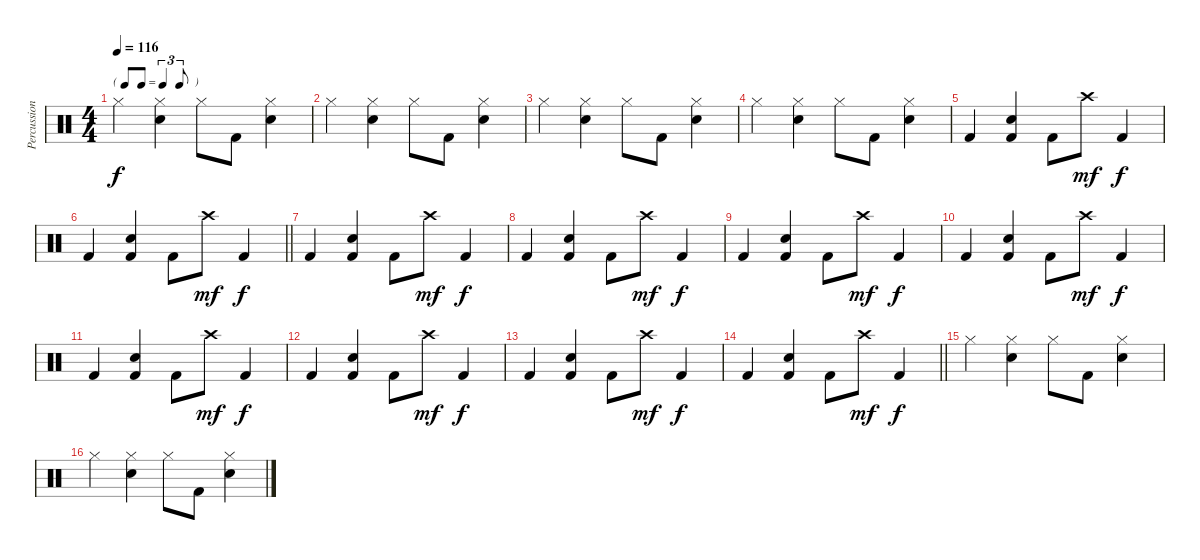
\track ("Percussion" "Percussion") {instrument percussion}
\staff {score}
\articulation defaults
\ts (4 4)
\tf triplet8th
\tempo 116
\clef neutral
\ks c "Hi-Hat (closed)".4{dy f}
("Hi-Hat (closed)" "Snare (hit) 2").4 "Hi-Hat (closed)".8 "Kick (hit) 2".8 ("Hi-Hat (closed)" "Snare (hit) 2").4 |
"Hi-Hat (closed)".4 ("Hi-Hat (closed)" "Snare (hit) 2").4 "Hi-Hat (closed)".8 "Kick (hit) 2".8 ("Hi-Hat (closed)" "Snare (hit) 2").4 |
"Hi-Hat (closed)".4 ("Hi-Hat (closed)" "Snare (hit) 2").4 "Hi-Hat (closed)".8 "Kick (hit) 2".8 ("Hi-Hat (closed)" "Snare (hit) 2").4 |
"Hi-Hat (closed)".4 ("Hi-Hat (closed)" "Snare (hit) 2").4 "Hi-Hat (closed)".8 "Kick (hit) 2".8 ("Hi-Hat (closed)" "Snare (hit) 2").4 |
"Kick (hit) 2".4 ("Snare (hit) 2" "Kick (hit) 2").4 "Kick (hit) 2".8 "Crash high (hit)".8{dy mf} "Kick (hit) 2".4{dy f} |
\barLineRight lightlight "Kick (hit) 2".4
("Snare (hit) 2" "Kick (hit) 2").4 "Kick (hit) 2".8 "Crash high (hit)".8{dy mf} "Kick (hit) 2".4{dy f} |
"Kick (hit) 2".4 ("Snare (hit) 2" "Kick (hit) 2").4 "Kick (hit) 2".8 "Crash high (hit)".8{dy mf} "Kick (hit) 2".4{dy f} |
"Kick (hit) 2".4 ("Snare (hit) 2" "Kick (hit) 2").4 "Kick (hit) 2".8 "Crash high (hit)".8{dy mf} "Kick (hit) 2".4{dy f} |
"Kick (hit) 2".4 ("Snare (hit) 2" "Kick (hit) 2").4 "Kick (hit) 2".8 "Crash high (hit)".8{dy mf} "Kick (hit) 2".4{dy f} |
"Kick (hit) 2".4 ("Snare (hit) 2" "Kick (hit) 2").4 "Kick (hit) 2".8 "Crash high (hit)".8{dy mf} "Kick (hit) 2".4{dy f} |
"Kick (hit) 2".4 ("Snare (hit) 2" "Kick (hit) 2").4 "Kick (hit) 2".8 "Crash high (hit)".8{dy mf} "Kick (hit) 2".4{dy f} |
"Kick (hit) 2".4 ("Snare (hit) 2" "Kick (hit) 2").4 "Kick (hit) 2".8 "Crash high (hit)".8{dy mf} "Kick (hit) 2".4{dy f} |
"Kick (hit) 2".4 ("Snare (hit) 2" "Kick (hit) 2").4 "Kick (hit) 2".8 "Crash high (hit)".8{dy mf} "Kick (hit) 2".4{dy f} |
\barLineRight lightlight "Kick (hit) 2".4
("Snare (hit) 2" "Kick (hit) 2").4 "Kick (hit) 2".8 "Crash high (hit)".8{dy mf} "Kick (hit) 2".4{dy f} |
"Hi-Hat (closed)".4 ("Hi-Hat (closed)" "Snare (hit) 2").4 "Hi-Hat (closed)".8 "Kick (hit) 2".8 ("Hi-Hat (closed)" "Snare (hit) 2").4 |
"Hi-Hat (closed)".4 ("Hi-Hat (closed)" "Snare (hit) 2").4 "Hi-Hat (closed)".8 "Kick (hit) 2".8 ("Hi-Hat (closed)" "Snare (hit) 2").4
